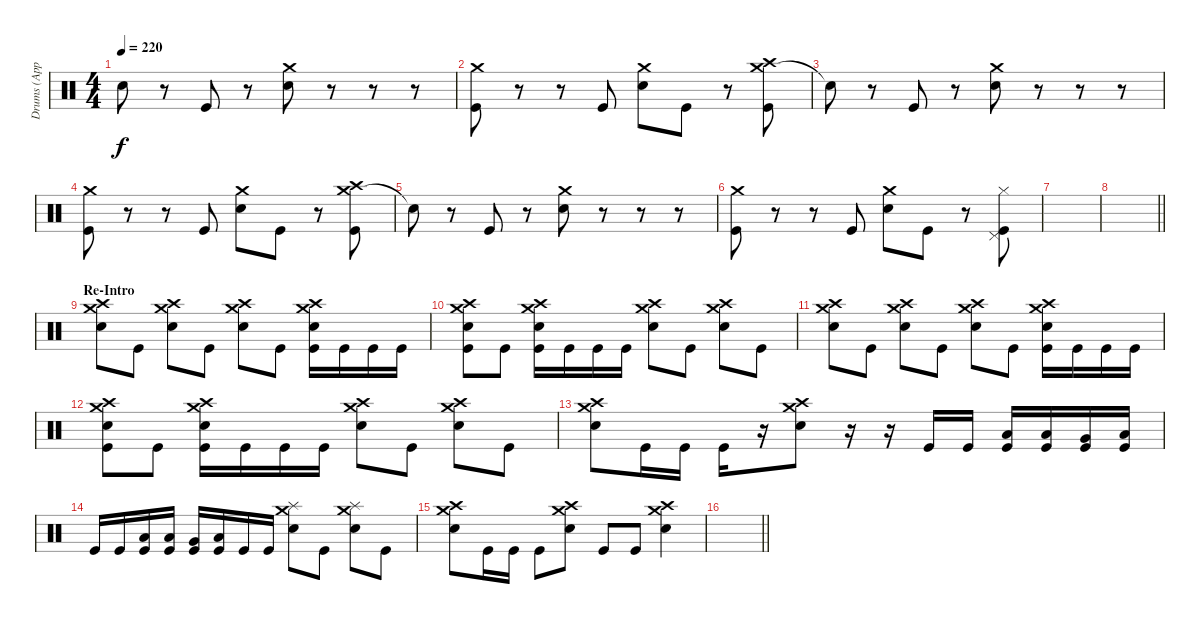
\track ("Drums (Approx.)" "Drums (App") {instrument percussion}
\staff {score}
\articulation defaults
\ts (4 4)
\tempo 220
\clef neutral
\ks c "Snare (hit)"{t}.8{dy f}
r.8 "Kick (hit)".8 r.8 ("Crash medium (hit)" "Electric Snare (hit)").8 r.8 r.8 r.8 |
("Crash medium (hit)" "Kick (hit)").8 r.8 r.8 "Kick (hit)".8 ("Crash medium (hit)" "Electric Snare (hit)").8 "Kick (hit)".8 r.8 ("Crash medium (hit)" "Crash high (hit)" "Kick (hit)").8 |
"Snare (hit)"{t}.8 r.8 "Kick (hit)".8 r.8 ("Crash medium (hit)" "Electric Snare (hit)").8 r.8 r.8 r.8 |
("Crash medium (hit)" "Kick (hit)").8 r.8 r.8 "Kick (hit)".8 ("Crash medium (hit)" "Electric Snare (hit)").8 "Kick (hit)".8 r.8 ("Crash medium (hit)" "Crash high (hit)" "Kick (hit)").8 |
"Snare (hit)"{t}.8 r.8 "Kick (hit)".8 r.8 ("Crash medium (hit)" "Electric Snare (hit)").8 r.8 r.8 r.8 |
("Crash medium (hit)" "Kick (hit)").8 r.8 r.8 "Kick (hit)".8 ("Crash medium (hit)" "Electric Snare (hit)").8 "Kick (hit)".8 r.8 ("Pedal Hi-Hat (hit)" "Hi-Hat (closed)" "Kick (hit)").8 |
|
\barLineRight lightlight
|
\section ("" "Re-Intro")
("Crash medium (hit)" "Crash high (hit)" "Electric Snare (hit)").8 "Kick (hit)".8 ("Crash medium (hit)" "Crash high (hit)" "Electric Snare (hit)").8 "Kick (hit)".8 ("Crash medium (hit)" "Crash high (hit)" "Electric Snare (hit)").8 "Kick (hit)".8 ("Crash medium (hit)" "Crash high (hit)" "Electric Snare (hit)" "Kick (hit)").16 "Kick (hit)".16 "Kick (hit)".16 "Kick (hit)".16 |
("Crash medium (hit)" "Crash high (hit)" "Electric Snare (hit)" "Kick (hit)").8 "Kick (hit)".8 ("Crash medium (hit)" "Crash high (hit)" "Electric Snare (hit)" "Kick (hit)").16 "Kick (hit)".16 "Kick (hit)".16 "Kick (hit)".16 ("Crash medium (hit)" "Crash high (hit)" "Electric Snare (hit)").8 "Kick (hit)".8 ("Crash medium (hit)" "Crash high (hit)" "Electric Snare (hit)").8 "Kick (hit)".8 |
("Crash medium (hit)" "Crash high (hit)" "Electric Snare (hit)").8 "Kick (hit)".8 ("Crash medium (hit)" "Crash high (hit)" "Electric Snare (hit)").8 "Kick (hit)".8 ("Crash medium (hit)" "Crash high (hit)" "Electric Snare (hit)").8 "Kick (hit)".8 ("Crash medium (hit)" "Crash high (hit)" "Electric Snare (hit)" "Kick (hit)").16 "Kick (hit)".16 "Kick (hit)".16 "Kick (hit)".16 |
("Crash medium (hit)" "Crash high (hit)" "Electric Snare (hit)" "Kick (hit)").8 "Kick (hit)".8 ("Crash medium (hit)" "Crash high (hit)" "Electric Snare (hit)" "Kick (hit)").16 "Kick (hit)".16 "Kick (hit)".16 "Kick (hit)".16 ("Crash medium (hit)" "Crash high (hit)" "Electric Snare (hit)").8 "Kick (hit)".8 ("Crash medium (hit)" "Crash high (hit)" "Electric Snare (hit)").8 "Kick (hit)".8 |
("Crash medium (hit)" "Crash high (hit)" "Electric Snare (hit)").8 "Kick (hit)".16 "Kick (hit)".16 "Kick (hit)".16 r.16 ("Crash medium (hit)" "Crash high (hit)" "Electric Snare (hit)").8 r.16 r.16 "Kick (hit)".16 "Kick (hit)".16 ("Low Tom (hit)" "Kick (hit)").16 ("Low Tom (hit)" "Kick (hit)").16 ("Very Low Tom (hit)" "Kick (hit)").16 ("Low Floor Tom (hit)" "Kick (hit)").16 |
"Kick (hit)".16 "Kick (hit)".16 ("Low Tom (hit)" "Kick (hit)").16 ("Low Tom (hit)" "Kick (hit)").16 ("Very Low Tom (hit)" "Kick (hit)").16 ("Low Floor Tom (hit)" "Kick (hit)").16 "Kick (hit)".16 "Kick (hit)".16 ("Crash medium (hit)" "Splash (hit)" "Electric Snare (hit)").8 "Kick (hit)".8 ("Crash medium (hit)" "Splash (hit)" "Electric Snare (hit)").8 "Kick (hit)".8 |
("Crash medium (hit)" "Crash high (hit)" "Electric Snare (hit)").8 "Kick (hit)".16 "Kick (hit)".16 "Kick (hit)".8 ("Crash medium (hit)" "Crash high (hit)" "Electric Snare (hit)").8 "Kick (hit)".8 "Kick (hit)".8 ("Crash medium (hit)" "Crash high (hit)" "Electric Snare (hit)").4 |
\barLineRight lightlight
